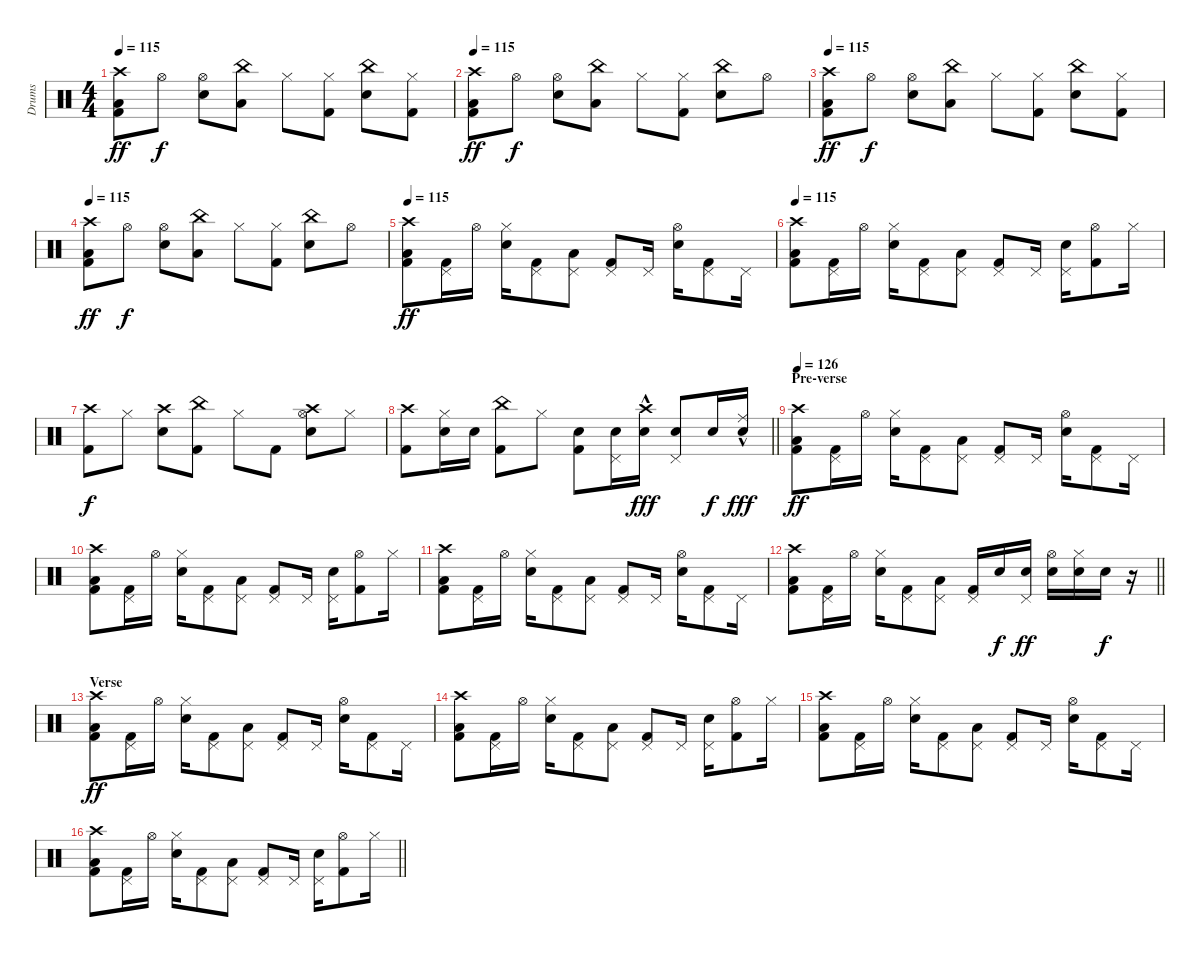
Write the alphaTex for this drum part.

\track ("Drums" "Drums") {instrument percussion}
\staff {score}
\articulation defaults
\ts (4 4)
\tempo 115
\clef neutral
\ks c
("Low Tom (hit)" "Kick (hit) 2" "Crash high (hit)").8{dy ff} "Hi-Hat (open)".8{dy f} ("Snare (hit) 2" "Hi-Hat (open)").8 ("Low Tom (hit)" "China (hit)").8 "Hi-Hat (closed)".8 ("Kick (hit) 2" "Hi-Hat (closed)").8 ("Snare (hit) 2" "China (hit)").8 ("Kick (hit) 2" "Hi-Hat (closed)").8 |
\tempo 115
("Low Tom (hit)" "Kick (hit) 2" "Crash high (hit)").8{dy ff} "Hi-Hat (open)".8{dy f} ("Snare (hit) 2" "Hi-Hat (open)").8 ("Low Tom (hit)" "China (hit)").8 "Hi-Hat (closed)".8 ("Kick (hit) 2" "Hi-Hat (closed)").8 ("Snare (hit) 2" "China (hit)").8 "Hi-Hat (open)".8 |
\tempo 115
("Low Tom (hit)" "Kick (hit) 2" "Crash high (hit)").8{dy ff} "Hi-Hat (open)".8{dy f} ("Snare (hit) 2" "Hi-Hat (open)").8 ("Low Tom (hit)" "China (hit)").8 "Hi-Hat (closed)".8 ("Kick (hit) 2" "Hi-Hat (closed)").8 ("Snare (hit) 2" "China (hit)").8 ("Kick (hit) 2" "Hi-Hat (closed)").8 |
\tempo 115
("Low Tom (hit)" "Kick (hit) 2" "Crash high (hit)").8{dy ff} "Hi-Hat (open)".8{dy f} ("Snare (hit) 2" "Hi-Hat (open)").8 ("Low Tom (hit)" "China (hit)").8 "Hi-Hat (closed)".8 ("Kick (hit) 2" "Hi-Hat (closed)").8 ("Snare (hit) 2" "China (hit)").8 "Hi-Hat (open)".8 |
\tempo 115
("Low Tom (hit)" "Kick (hit) 2" "Crash high (hit)").8{dy ff} ("Kick (hit) 2" "Pedal Hi-Hat (hit)").16 "Hi-Hat (open)".16 ("Snare (hit) 2" "Hi-Hat (closed)").16 ("Kick (hit) 2" "Pedal Hi-Hat (hit)").8 ("Low Tom (hit)" "Pedal Hi-Hat (hit)").8 ("Kick (hit) 2" "Pedal Hi-Hat (hit)").8 "Pedal Hi-Hat (hit)".16 ("Snare (hit) 2" "Hi-Hat (open)").16 ("Kick (hit) 2" "Pedal Hi-Hat (hit)").8 "Pedal Hi-Hat (hit)".16 |
\tempo 115
("Low Tom (hit)" "Kick (hit) 2" "Crash high (hit)").8 ("Kick (hit) 2" "Pedal Hi-Hat (hit)").16 "Hi-Hat (open)".16 ("Snare (hit) 2" "Hi-Hat (closed)").16 ("Kick (hit) 2" "Pedal Hi-Hat (hit)").8 ("Low Tom (hit)" "Pedal Hi-Hat (hit)").8 ("Kick (hit) 2" "Pedal Hi-Hat (hit)").8 "Pedal Hi-Hat (hit)".16 ("Snare (hit) 2" "Pedal Hi-Hat (hit)").16 ("Kick (hit) 2" "Hi-Hat (open)").8 "Hi-Hat (closed)".16 |
("Crash high (hit)" "Kick (hit) 2").8{dy f} "Hi-Hat (closed)".8 ("Crash high (hit)" "Snare (hit) 2").8 ("China (hit)" "Kick (hit) 2").8 "Hi-Hat (closed)".8 "Kick (hit) 2".8 ("Crash high (hit)" "Snare (hit) 2" "Hi-Hat (open)").8 "Hi-Hat (closed)".8 |
\barLineRight lightlight
("Crash high (hit)" "Kick (hit) 2").8 ("Electric Snare (hit)" "Hi-Hat (closed)").16 "Snare (hit) 2".16 ("China (hit)" "Kick (hit) 2").8 "Hi-Hat (closed)".8 ("Electric Snare (hit)" "Kick (hit) 2").8 ("Snare (hit) 2" "Pedal Hi-Hat (hit)").16 ("Electric Snare (hit)"{hac} "Crash high (hit)").16{dy fff} ("Snare (hit) 2" "Pedal Hi-Hat (hit)").8 "Snare (hit) 2".16{dy f} ("Electric Snare (hit)"{hac} "Ride (middle)"{hac}).16{dy fff} |
\section ("" "Pre-verse")
\tempo 126
("Low Tom (hit)" "Kick (hit) 2" "Crash high (hit)").8{dy ff} ("Kick (hit) 2" "Pedal Hi-Hat (hit)").16 "Hi-Hat (open)".16 ("Snare (hit) 2" "Hi-Hat (closed)").16 ("Kick (hit) 2" "Pedal Hi-Hat (hit)").8 ("Low Tom (hit)" "Pedal Hi-Hat (hit)").8 ("Kick (hit) 2" "Pedal Hi-Hat (hit)").8 "Pedal Hi-Hat (hit)".16 ("Snare (hit) 2" "Hi-Hat (open)").16 ("Kick (hit) 2" "Pedal Hi-Hat (hit)").8 "Pedal Hi-Hat (hit)".16 |
("Low Tom (hit)" "Kick (hit) 2" "Crash high (hit)").8 ("Kick (hit) 2" "Pedal Hi-Hat (hit)").16 "Hi-Hat (open)".16 ("Snare (hit) 2" "Hi-Hat (closed)").16 ("Kick (hit) 2" "Pedal Hi-Hat (hit)").8 ("Low Tom (hit)" "Pedal Hi-Hat (hit)").8 ("Kick (hit) 2" "Pedal Hi-Hat (hit)").8 "Pedal Hi-Hat (hit)".16 ("Snare (hit) 2" "Pedal Hi-Hat (hit)").16 ("Kick (hit) 2" "Hi-Hat (open)").8 "Hi-Hat (closed)".16 |
("Low Tom (hit)" "Kick (hit) 2" "Crash high (hit)").8 ("Kick (hit) 2" "Pedal Hi-Hat (hit)").16 "Hi-Hat (open)".16 ("Snare (hit) 2" "Hi-Hat (closed)").16 ("Kick (hit) 2" "Pedal Hi-Hat (hit)").8 ("Low Tom (hit)" "Pedal Hi-Hat (hit)").8 ("Kick (hit) 2" "Pedal Hi-Hat (hit)").8 "Pedal Hi-Hat (hit)".16 ("Snare (hit) 2" "Hi-Hat (open)").16 ("Kick (hit) 2" "Pedal Hi-Hat (hit)").8 "Pedal Hi-Hat (hit)".16 |
\barLineRight lightlight
("Low Tom (hit)" "Kick (hit) 2" "Crash high (hit)").8 ("Kick (hit) 2" "Pedal Hi-Hat (hit)").16 "Hi-Hat (open)".16 ("Snare (hit) 2" "Hi-Hat (closed)").16 ("Kick (hit) 2" "Pedal Hi-Hat (hit)").8 ("Low Tom (hit)" "Pedal Hi-Hat (hit)").8 ("Kick (hit) 2" "Pedal Hi-Hat (hit)").16 "Electric Snare (hit)".16{dy f} ("Electric Snare (hit)" "Pedal Hi-Hat (hit)").16{dy ff} ("Electric Snare (hit)" "Hi-Hat (open)").16 ("Snare (hit) 2" "Hi-Hat (closed)").16 "Snare (hit) 2".16{dy f} r.16 |
\section ("" "Verse")
("Low Tom (hit)" "Kick (hit) 2" "Crash high (hit)").8{dy ff} ("Kick (hit) 2" "Pedal Hi-Hat (hit)").16 "Hi-Hat (open)".16 ("Snare (hit) 2" "Hi-Hat (closed)").16 ("Kick (hit) 2" "Pedal Hi-Hat (hit)").8 ("Low Tom (hit)" "Pedal Hi-Hat (hit)").8 ("Kick (hit) 2" "Pedal Hi-Hat (hit)").8 "Pedal Hi-Hat (hit)".16 ("Snare (hit) 2" "Hi-Hat (open)").16 ("Kick (hit) 2" "Pedal Hi-Hat (hit)").8 "Pedal Hi-Hat (hit)".16 |
("Low Tom (hit)" "Kick (hit) 2" "Crash high (hit)").8 ("Kick (hit) 2" "Pedal Hi-Hat (hit)").16 "Hi-Hat (open)".16 ("Snare (hit) 2" "Hi-Hat (closed)").16 ("Kick (hit) 2" "Pedal Hi-Hat (hit)").8 ("Low Tom (hit)" "Pedal Hi-Hat (hit)").8 ("Kick (hit) 2" "Pedal Hi-Hat (hit)").8 "Pedal Hi-Hat (hit)".16 ("Snare (hit) 2" "Pedal Hi-Hat (hit)").16 ("Kick (hit) 2" "Hi-Hat (open)").8 "Hi-Hat (closed)".16 |
("Low Tom (hit)" "Kick (hit) 2" "Crash high (hit)").8 ("Kick (hit) 2" "Pedal Hi-Hat (hit)").16 "Hi-Hat (open)".16 ("Snare (hit) 2" "Hi-Hat (closed)").16 ("Kick (hit) 2" "Pedal Hi-Hat (hit)").8 ("Low Tom (hit)" "Pedal Hi-Hat (hit)").8 ("Kick (hit) 2" "Pedal Hi-Hat (hit)").8 "Pedal Hi-Hat (hit)".16 ("Snare (hit) 2" "Hi-Hat (open)").16 ("Kick (hit) 2" "Pedal Hi-Hat (hit)").8 "Pedal Hi-Hat (hit)".16 |
\barLineRight lightlight
("Low Tom (hit)" "Kick (hit) 2" "Crash high (hit)").8 ("Kick (hit) 2" "Pedal Hi-Hat (hit)").16 "Hi-Hat (open)".16 ("Snare (hit) 2" "Hi-Hat (closed)").16 ("Kick (hit) 2" "Pedal Hi-Hat (hit)").8 ("Low Tom (hit)" "Pedal Hi-Hat (hit)").8 ("Kick (hit) 2" "Pedal Hi-Hat (hit)").8 "Pedal Hi-Hat (hit)".16 ("Snare (hit) 2" "Pedal Hi-Hat (hit)").16 ("Kick (hit) 2" "Hi-Hat (open)").8 "Hi-Hat (closed)".16
